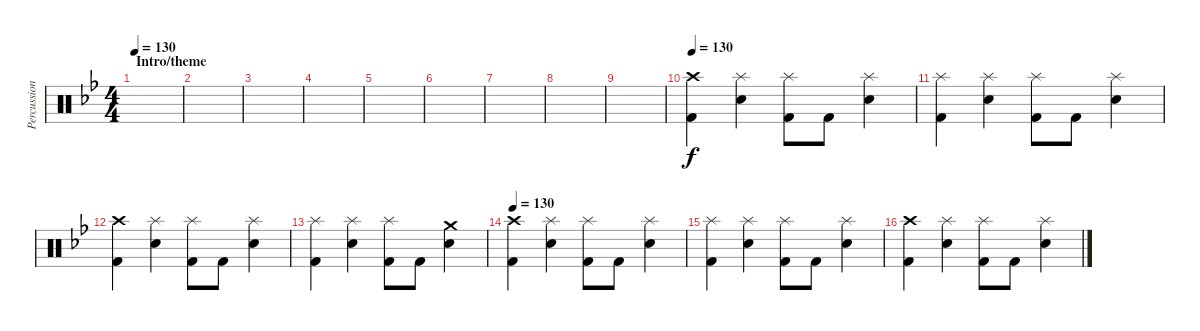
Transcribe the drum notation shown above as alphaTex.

\track ("Percussions" "Percussion") {instrument percussion}
\staff {score}
\articulation defaults
\ts (4 4)
\section ("" "Intro/theme")
\tempo 130
\tempo 90
\tempo 130
\clef neutral
\ks gminor
|
|
|
|
|
|
|
|
|
\tempo 130
("Crash high (hit)" "Kick (hit) 2").4 ("Splash (hit)" "Electric Snare (hit)").4 ("Splash (hit)" "Kick (hit) 2").8 "Kick (hit) 2".8 ("Splash (hit)" "Electric Snare (hit)").4 |
("Splash (hit)" "Kick (hit) 2").4 ("Splash (hit)" "Electric Snare (hit)").4 ("Splash (hit)" "Kick (hit) 2").8 "Kick (hit) 2".8 ("Splash (hit)" "Electric Snare (hit)").4 |
("Crash high (hit)" "Kick (hit) 2").4 ("Splash (hit)" "Electric Snare (hit)").4 ("Splash (hit)" "Kick (hit) 2").8 "Kick (hit) 2".8 ("Splash (hit)" "Electric Snare (hit)").4 |
("Splash (hit)" "Kick (hit) 2").4 ("Splash (hit)" "Electric Snare (hit)").4 ("Splash (hit)" "Kick (hit) 2").8 "Kick (hit) 2".8 ("Crash medium (hit)" "Electric Snare (hit)").4 |
\tempo 130
("Crash high (hit)" "Kick (hit) 2").4 ("Splash (hit)" "Electric Snare (hit)").4 ("Splash (hit)" "Kick (hit) 2").8 "Kick (hit) 2".8 ("Splash (hit)" "Electric Snare (hit)").4 |
("Splash (hit)" "Kick (hit) 2").4 ("Splash (hit)" "Electric Snare (hit)").4 ("Splash (hit)" "Kick (hit) 2").8 "Kick (hit) 2".8 ("Splash (hit)" "Electric Snare (hit)").4 |
("Crash high (hit)" "Kick (hit) 2").4 ("Splash (hit)" "Electric Snare (hit)").4 ("Splash (hit)" "Kick (hit) 2").8 "Kick (hit) 2".8 ("Splash (hit)" "Electric Snare (hit)").4
